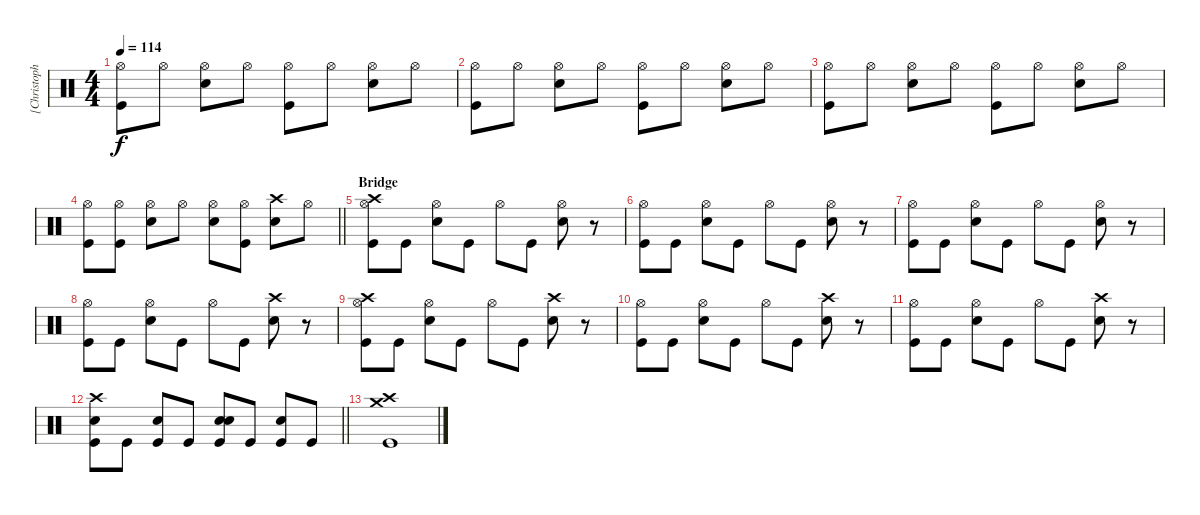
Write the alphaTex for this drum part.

\track ("[Christoph Schneider] ;Drums" "[Christoph") {solo instrument percussion}
\staff {score}
\articulation defaults
\ts (4 4)
\tempo 114
\clef neutral
\ks c
("Kick (hit)" "Hi-Hat (open)").8{dy f} "Hi-Hat (open)".8 ("Hi-Hat (open)" "Snare (hit) 2").8 "Hi-Hat (open)".8 ("Kick (hit)" "Hi-Hat (open)").8 "Hi-Hat (open)".8 ("Hi-Hat (open)" "Snare (hit) 2").8 "Hi-Hat (open)".8 |
("Kick (hit)" "Hi-Hat (open)").8 "Hi-Hat (open)".8 ("Hi-Hat (open)" "Snare (hit) 2").8 "Hi-Hat (open)".8 ("Kick (hit)" "Hi-Hat (open)").8 "Hi-Hat (open)".8 ("Hi-Hat (open)" "Snare (hit) 2").8 "Hi-Hat (open)".8 |
("Kick (hit)" "Hi-Hat (open)").8 "Hi-Hat (open)".8 ("Hi-Hat (open)" "Snare (hit) 2").8 "Hi-Hat (open)".8 ("Kick (hit)" "Hi-Hat (open)").8 "Hi-Hat (open)".8 ("Hi-Hat (open)" "Snare (hit) 2").8 "Hi-Hat (open)".8 |
\barLineRight lightlight
("Kick (hit)" "Hi-Hat (open)").8 ("Kick (hit)" "Hi-Hat (open)").8 ("Hi-Hat (open)" "Snare (hit) 2").8 "Hi-Hat (open)".8 ("Hi-Hat (open)" "Snare (hit) 2").8 ("Kick (hit)" "Hi-Hat (open)").8 ("Crash high (hit)" "Snare (hit) 2").8 "Hi-Hat (open)".8 |
\section ("" "Bridge")
("Kick (hit)" "Crash high (hit)" "Hi-Hat (open)").8 "Kick (hit)".8 ("Hi-Hat (open)" "Snare (hit) 2").8 "Kick (hit)".8 "Hi-Hat (open)".8 "Kick (hit)".8 ("Hi-Hat (open)" "Snare (hit) 2").8 r.8 |
("Kick (hit)" "Hi-Hat (open)").8 "Kick (hit)".8 ("Hi-Hat (open)" "Snare (hit) 2").8 "Kick (hit)".8 "Hi-Hat (open)".8 "Kick (hit)".8 ("Hi-Hat (open)" "Snare (hit) 2").8 r.8 |
("Kick (hit)" "Hi-Hat (open)").8 "Kick (hit)".8 ("Hi-Hat (open)" "Snare (hit) 2").8 "Kick (hit)".8 "Hi-Hat (open)".8 "Kick (hit)".8 ("Hi-Hat (open)" "Snare (hit) 2").8 r.8 |
("Kick (hit)" "Hi-Hat (open)").8 "Kick (hit)".8 ("Hi-Hat (open)" "Snare (hit) 2").8 "Kick (hit)".8 "Hi-Hat (open)".8 "Kick (hit)".8 ("Crash high (hit)" "Snare (hit) 2").8 r.8 |
("Kick (hit)" "Crash high (hit)" "Hi-Hat (open)").8 "Kick (hit)".8 ("Hi-Hat (open)" "Snare (hit) 2").8 "Kick (hit)".8 "Hi-Hat (open)".8 "Kick (hit)".8 ("Crash high (hit)" "Snare (hit) 2").8 r.8 |
("Kick (hit)" "Hi-Hat (open)").8 "Kick (hit)".8 ("Hi-Hat (open)" "Snare (hit) 2").8 "Kick (hit)".8 "Hi-Hat (open)".8 "Kick (hit)".8 ("Crash high (hit)" "Snare (hit) 2").8 r.8 |
("Kick (hit)" "Hi-Hat (open)").8 "Kick (hit)".8 ("Hi-Hat (open)" "Snare (hit) 2").8 "Kick (hit)".8 "Hi-Hat (open)".8 "Kick (hit)".8 ("Crash high (hit)" "Snare (hit) 2").8 r.8 |
\barLineRight lightlight
("Kick (hit)" "Crash high (hit)" "Snare (hit) 2").8 "Kick (hit)".8 ("Kick (hit)" "Snare (hit) 2").8 "Kick (hit)".8 ("Kick (hit)" "Snare (hit) 2" "Snare (hit) 2").8 "Kick (hit)".8 ("Kick (hit)" "Snare (hit) 2").8 "Kick (hit)".8 |
("Kick (hit)" "Crash high (hit)" "Crash medium (hit)").1
